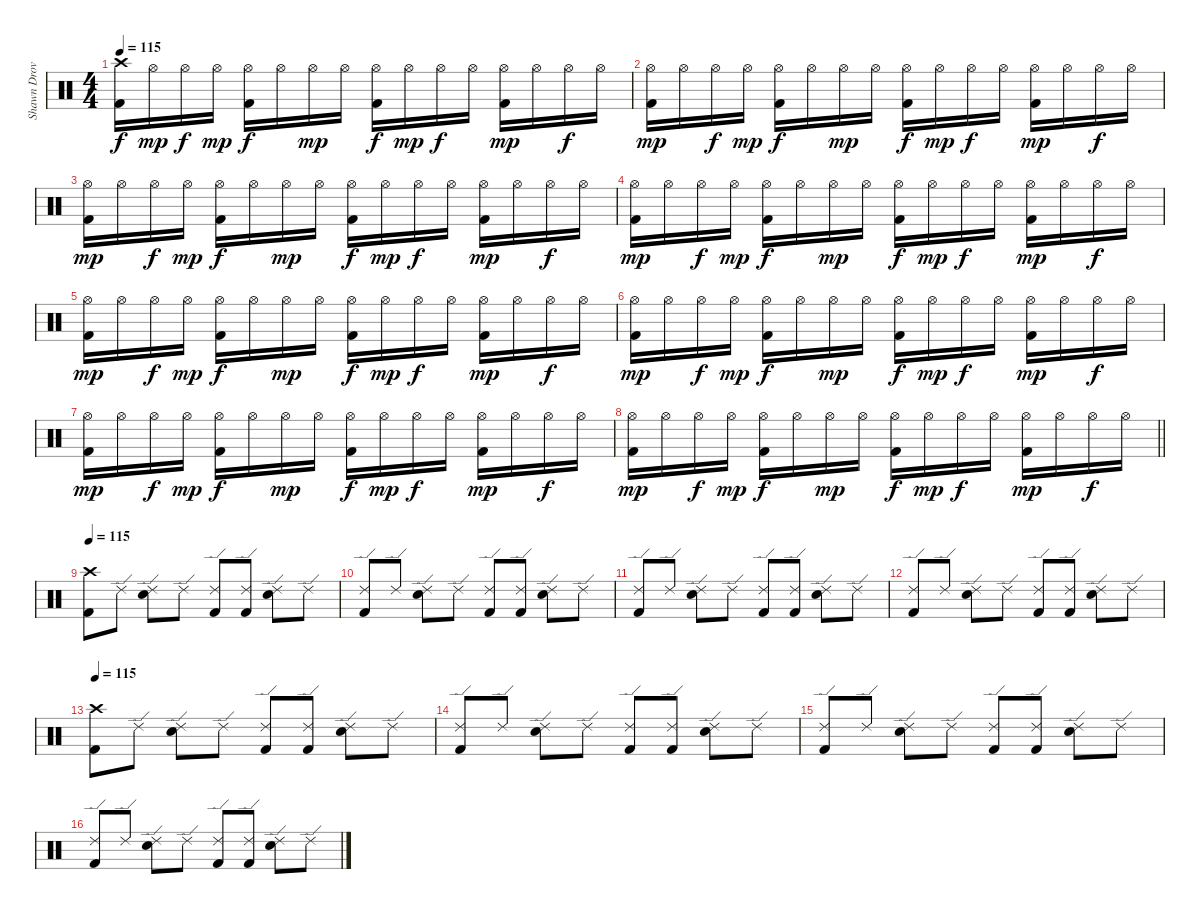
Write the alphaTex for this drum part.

\track ("Shawn Drover" "Shawn Drov") {instrument percussion}
\staff {score}
\articulation defaults
\ts (4 4)
\tempo 115
\clef neutral
\ks c
("Crash high (hit)" "Kick (hit) 2").16{dy f} "Hi-Hat (open)".16{dy mp} "Hi-Hat (open)".16{dy f} "Hi-Hat (open)".16{dy mp} ("Hi-Hat (open)" "Kick (hit) 2").16{dy f} "Hi-Hat (open)".16 "Hi-Hat (open)".16{dy mp} "Hi-Hat (open)".16 ("Hi-Hat (open)" "Kick (hit) 2").16{dy f} "Hi-Hat (open)".16{dy mp} "Hi-Hat (open)".16{dy f} "Hi-Hat (open)".16 ("Hi-Hat (open)" "Kick (hit) 2").16{dy mp} "Hi-Hat (open)".16 "Hi-Hat (open)".16{dy f} "Hi-Hat (open)".16 |
("Hi-Hat (open)" "Kick (hit) 2").16{dy mp} "Hi-Hat (open)".16 "Hi-Hat (open)".16{dy f} "Hi-Hat (open)".16{dy mp} ("Hi-Hat (open)" "Kick (hit) 2").16{dy f} "Hi-Hat (open)".16 "Hi-Hat (open)".16{dy mp} "Hi-Hat (open)".16 ("Hi-Hat (open)" "Kick (hit) 2").16{dy f} "Hi-Hat (open)".16{dy mp} "Hi-Hat (open)".16{dy f} "Hi-Hat (open)".16 ("Hi-Hat (open)" "Kick (hit) 2").16{dy mp} "Hi-Hat (open)".16 "Hi-Hat (open)".16{dy f} "Hi-Hat (open)".16 |
("Hi-Hat (open)" "Kick (hit) 2").16{dy mp} "Hi-Hat (open)".16 "Hi-Hat (open)".16{dy f} "Hi-Hat (open)".16{dy mp} ("Hi-Hat (open)" "Kick (hit) 2").16{dy f} "Hi-Hat (open)".16 "Hi-Hat (open)".16{dy mp} "Hi-Hat (open)".16 ("Hi-Hat (open)" "Kick (hit) 2").16{dy f} "Hi-Hat (open)".16{dy mp} "Hi-Hat (open)".16{dy f} "Hi-Hat (open)".16 ("Hi-Hat (open)" "Kick (hit) 2").16{dy mp} "Hi-Hat (open)".16 "Hi-Hat (open)".16{dy f} "Hi-Hat (open)".16 |
("Hi-Hat (open)" "Kick (hit) 2").16{dy mp} "Hi-Hat (open)".16 "Hi-Hat (open)".16{dy f} "Hi-Hat (open)".16{dy mp} ("Hi-Hat (open)" "Kick (hit) 2").16{dy f} "Hi-Hat (open)".16 "Hi-Hat (open)".16{dy mp} "Hi-Hat (open)".16 ("Hi-Hat (open)" "Kick (hit) 2").16{dy f} "Hi-Hat (open)".16{dy mp} "Hi-Hat (open)".16{dy f} "Hi-Hat (open)".16 ("Hi-Hat (open)" "Kick (hit) 2").16{dy mp} "Hi-Hat (open)".16 "Hi-Hat (open)".16{dy f} "Hi-Hat (open)".16 |
("Hi-Hat (open)" "Kick (hit) 2").16{dy mp} "Hi-Hat (open)".16 "Hi-Hat (open)".16{dy f} "Hi-Hat (open)".16{dy mp} ("Hi-Hat (open)" "Kick (hit) 2").16{dy f} "Hi-Hat (open)".16 "Hi-Hat (open)".16{dy mp} "Hi-Hat (open)".16 ("Hi-Hat (open)" "Kick (hit) 2").16{dy f} "Hi-Hat (open)".16{dy mp} "Hi-Hat (open)".16{dy f} "Hi-Hat (open)".16 ("Hi-Hat (open)" "Kick (hit) 2").16{dy mp} "Hi-Hat (open)".16 "Hi-Hat (open)".16{dy f} "Hi-Hat (open)".16 |
("Hi-Hat (open)" "Kick (hit) 2").16{dy mp} "Hi-Hat (open)".16 "Hi-Hat (open)".16{dy f} "Hi-Hat (open)".16{dy mp} ("Hi-Hat (open)" "Kick (hit) 2").16{dy f} "Hi-Hat (open)".16 "Hi-Hat (open)".16{dy mp} "Hi-Hat (open)".16 ("Hi-Hat (open)" "Kick (hit) 2").16{dy f} "Hi-Hat (open)".16{dy mp} "Hi-Hat (open)".16{dy f} "Hi-Hat (open)".16 ("Hi-Hat (open)" "Kick (hit) 2").16{dy mp} "Hi-Hat (open)".16 "Hi-Hat (open)".16{dy f} "Hi-Hat (open)".16 |
("Hi-Hat (open)" "Kick (hit) 2").16{dy mp} "Hi-Hat (open)".16 "Hi-Hat (open)".16{dy f} "Hi-Hat (open)".16{dy mp} ("Hi-Hat (open)" "Kick (hit) 2").16{dy f} "Hi-Hat (open)".16 "Hi-Hat (open)".16{dy mp} "Hi-Hat (open)".16 ("Hi-Hat (open)" "Kick (hit) 2").16{dy f} "Hi-Hat (open)".16{dy mp} "Hi-Hat (open)".16{dy f} "Hi-Hat (open)".16 ("Hi-Hat (open)" "Kick (hit) 2").16{dy mp} "Hi-Hat (open)".16 "Hi-Hat (open)".16{dy f} "Hi-Hat (open)".16 |
\barLineRight lightlight
("Hi-Hat (open)" "Kick (hit) 2").16{dy mp} "Hi-Hat (open)".16 "Hi-Hat (open)".16{dy f} "Hi-Hat (open)".16{dy mp} ("Hi-Hat (open)" "Kick (hit) 2").16{dy f} "Hi-Hat (open)".16 "Hi-Hat (open)".16{dy mp} "Hi-Hat (open)".16 ("Hi-Hat (open)" "Kick (hit) 2").16{dy f} "Hi-Hat (open)".16{dy mp} "Hi-Hat (open)".16{dy f} "Hi-Hat (open)".16 ("Hi-Hat (open)" "Kick (hit) 2").16{dy mp} "Hi-Hat (open)".16 "Hi-Hat (open)".16{dy f} "Hi-Hat (open)".16 |
\tempo 115
("Crash high (hit)" "Kick (hit) 2").8 "Ride (edge) 2".8 ("Ride (edge) 2" "Snare (hit) 2").8 "Ride (edge) 2".8 ("Ride (edge) 2" "Kick (hit) 2").8 ("Ride (edge) 2" "Kick (hit) 2").8 ("Ride (edge) 2" "Snare (hit) 2").8 "Ride (edge) 2".8 |
("Ride (edge) 2" "Kick (hit) 2").8 "Ride (edge) 2".8 ("Ride (edge) 2" "Snare (hit) 2").8 "Ride (edge) 2".8 ("Ride (edge) 2" "Kick (hit) 2").8 ("Ride (edge) 2" "Kick (hit) 2").8 ("Ride (edge) 2" "Snare (hit) 2").8 "Ride (edge) 2".8 |
("Ride (edge) 2" "Kick (hit) 2").8 "Ride (edge) 2".8 ("Ride (edge) 2" "Snare (hit) 2").8 "Ride (edge) 2".8 ("Ride (edge) 2" "Kick (hit) 2").8 ("Ride (edge) 2" "Kick (hit) 2").8 ("Ride (edge) 2" "Snare (hit) 2").8 "Ride (edge) 2".8 |
("Ride (edge) 2" "Kick (hit) 2").8 "Ride (edge) 2".8 ("Ride (edge) 2" "Snare (hit) 2").8 "Ride (edge) 2".8 ("Ride (edge) 2" "Kick (hit) 2").8 ("Ride (edge) 2" "Kick (hit) 2").8 ("Ride (edge) 2" "Snare (hit) 2").8 "Ride (edge) 2".8 |
\tempo 115
("Crash high (hit)" "Kick (hit) 2").8 "Ride (edge) 2".8 ("Ride (edge) 2" "Snare (hit) 2").8 "Ride (edge) 2".8 ("Ride (edge) 2" "Kick (hit) 2").8 ("Ride (edge) 2" "Kick (hit) 2").8 ("Ride (edge) 2" "Snare (hit) 2").8 "Ride (edge) 2".8 |
("Ride (edge) 2" "Kick (hit) 2").8 "Ride (edge) 2".8 ("Ride (edge) 2" "Snare (hit) 2").8 "Ride (edge) 2".8 ("Ride (edge) 2" "Kick (hit) 2").8 ("Ride (edge) 2" "Kick (hit) 2").8 ("Ride (edge) 2" "Snare (hit) 2").8 "Ride (edge) 2".8 |
("Ride (edge) 2" "Kick (hit) 2").8 "Ride (edge) 2".8 ("Ride (edge) 2" "Snare (hit) 2").8 "Ride (edge) 2".8 ("Ride (edge) 2" "Kick (hit) 2").8 ("Ride (edge) 2" "Kick (hit) 2").8 ("Ride (edge) 2" "Snare (hit) 2").8 "Ride (edge) 2".8 |
("Ride (edge) 2" "Kick (hit) 2").8 "Ride (edge) 2".8 ("Ride (edge) 2" "Snare (hit) 2").8 "Ride (edge) 2".8 ("Ride (edge) 2" "Kick (hit) 2").8 ("Ride (edge) 2" "Kick (hit) 2").8 ("Ride (edge) 2" "Snare (hit) 2").8 "Ride (edge) 2".8
